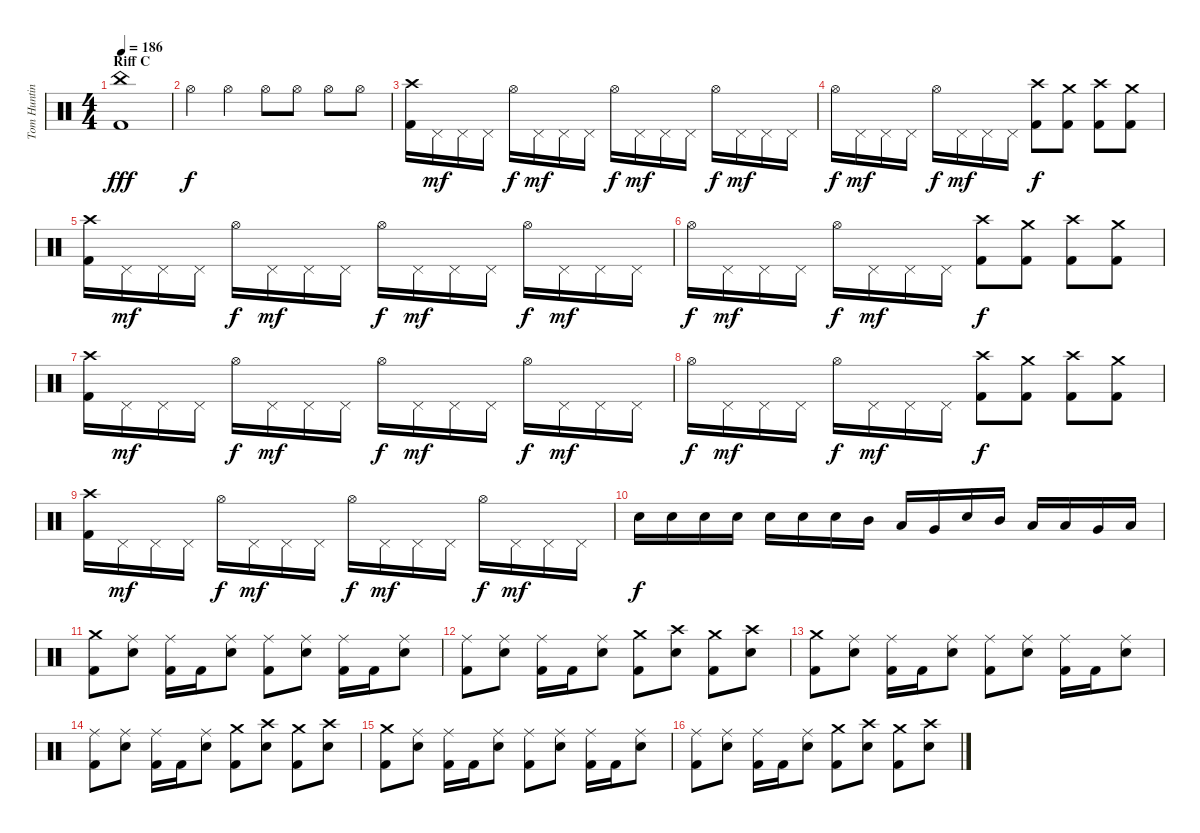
\track ("Tom Hunting" "Tom Huntin") {instrument percussion}
\staff {score}
\articulation defaults
\ts (4 4)
\section ("" "Riff C")
\tempo 186
\clef neutral
\ks c
("Kick (hit) 2" "China (hit)").1{dy fff} |
"Hi-Hat (open)".4{dy f} "Hi-Hat (open)".4 "Hi-Hat (open)".8 "Hi-Hat (open)".8 "Hi-Hat (open)".8 "Hi-Hat (open)".8 |
("Kick (hit) 2" "Crash high (hit)").16 "Pedal Hi-Hat (hit)".16{dy mf} "Pedal Hi-Hat (hit)".16 "Pedal Hi-Hat (hit)".16 "Hi-Hat (open)".16{dy f} "Pedal Hi-Hat (hit)".16{dy mf} "Pedal Hi-Hat (hit)".16 "Pedal Hi-Hat (hit)".16 "Hi-Hat (open)".16{dy f} "Pedal Hi-Hat (hit)".16{dy mf} "Pedal Hi-Hat (hit)".16 "Pedal Hi-Hat (hit)".16 "Hi-Hat (open)".16{dy f} "Pedal Hi-Hat (hit)".16{dy mf} "Pedal Hi-Hat (hit)".16 "Pedal Hi-Hat (hit)".16 |
"Hi-Hat (open)".16{dy f} "Pedal Hi-Hat (hit)".16{dy mf} "Pedal Hi-Hat (hit)".16 "Pedal Hi-Hat (hit)".16 "Hi-Hat (open)".16{dy f} "Pedal Hi-Hat (hit)".16{dy mf} "Pedal Hi-Hat (hit)".16 "Pedal Hi-Hat (hit)".16 ("Kick (hit) 2" "Crash high (hit)").8{dy f} ("Kick (hit) 2" "Crash medium (hit)").8 ("Kick (hit) 2" "Crash high (hit)").8 ("Kick (hit) 2" "Crash medium (hit)").8 |
("Kick (hit) 2" "Crash high (hit)").16 "Pedal Hi-Hat (hit)".16{dy mf} "Pedal Hi-Hat (hit)".16 "Pedal Hi-Hat (hit)".16 "Hi-Hat (open)".16{dy f} "Pedal Hi-Hat (hit)".16{dy mf} "Pedal Hi-Hat (hit)".16 "Pedal Hi-Hat (hit)".16 "Hi-Hat (open)".16{dy f} "Pedal Hi-Hat (hit)".16{dy mf} "Pedal Hi-Hat (hit)".16 "Pedal Hi-Hat (hit)".16 "Hi-Hat (open)".16{dy f} "Pedal Hi-Hat (hit)".16{dy mf} "Pedal Hi-Hat (hit)".16 "Pedal Hi-Hat (hit)".16 |
"Hi-Hat (open)".16{dy f} "Pedal Hi-Hat (hit)".16{dy mf} "Pedal Hi-Hat (hit)".16 "Pedal Hi-Hat (hit)".16 "Hi-Hat (open)".16{dy f} "Pedal Hi-Hat (hit)".16{dy mf} "Pedal Hi-Hat (hit)".16 "Pedal Hi-Hat (hit)".16 ("Kick (hit) 2" "Crash high (hit)").8{dy f} ("Kick (hit) 2" "Crash medium (hit)").8 ("Kick (hit) 2" "Crash high (hit)").8 ("Kick (hit) 2" "Crash medium (hit)").8 |
("Kick (hit) 2" "Crash high (hit)").16 "Pedal Hi-Hat (hit)".16{dy mf} "Pedal Hi-Hat (hit)".16 "Pedal Hi-Hat (hit)".16 "Hi-Hat (open)".16{dy f} "Pedal Hi-Hat (hit)".16{dy mf} "Pedal Hi-Hat (hit)".16 "Pedal Hi-Hat (hit)".16 "Hi-Hat (open)".16{dy f} "Pedal Hi-Hat (hit)".16{dy mf} "Pedal Hi-Hat (hit)".16 "Pedal Hi-Hat (hit)".16 "Hi-Hat (open)".16{dy f} "Pedal Hi-Hat (hit)".16{dy mf} "Pedal Hi-Hat (hit)".16 "Pedal Hi-Hat (hit)".16 |
"Hi-Hat (open)".16{dy f} "Pedal Hi-Hat (hit)".16{dy mf} "Pedal Hi-Hat (hit)".16 "Pedal Hi-Hat (hit)".16 "Hi-Hat (open)".16{dy f} "Pedal Hi-Hat (hit)".16{dy mf} "Pedal Hi-Hat (hit)".16 "Pedal Hi-Hat (hit)".16 ("Kick (hit) 2" "Crash high (hit)").8{dy f} ("Kick (hit) 2" "Crash medium (hit)").8 ("Kick (hit) 2" "Crash high (hit)").8 ("Kick (hit) 2" "Crash medium (hit)").8 |
("Kick (hit) 2" "Crash high (hit)").16 "Pedal Hi-Hat (hit)".16{dy mf} "Pedal Hi-Hat (hit)".16 "Pedal Hi-Hat (hit)".16 "Hi-Hat (open)".16{dy f} "Pedal Hi-Hat (hit)".16{dy mf} "Pedal Hi-Hat (hit)".16 "Pedal Hi-Hat (hit)".16 "Hi-Hat (open)".16{dy f} "Pedal Hi-Hat (hit)".16{dy mf} "Pedal Hi-Hat (hit)".16 "Pedal Hi-Hat (hit)".16 "Hi-Hat (open)".16{dy f} "Pedal Hi-Hat (hit)".16{dy mf} "Pedal Hi-Hat (hit)".16 "Pedal Hi-Hat (hit)".16 |
"Snare (hit) 2".16{dy f} "Snare (hit) 2".16 "Snare (hit) 2".16 "Snare (hit) 2".16 "Snare (hit) 2".16 "Snare (hit) 2".16 "Snare (hit) 2".16 "Mid Tom (hit)".16 "Low Tom (hit)".16 "Very Low Tom (hit)".16 "Snare (hit) 2".16 "Mid Tom (hit)".16 "Low Tom (hit)".16 "Low Tom (hit)".16 "Very Low Tom (hit)".16 "Low Floor Tom (hit)".16 |
("Kick (hit) 2" "Crash medium (hit)").8 ("Ride (middle)" "Snare (hit) 2").8 ("Kick (hit) 2" "Ride (middle)").16 "Kick (hit) 2".16 ("Ride (middle)" "Snare (hit) 2").8 ("Kick (hit) 2" "Ride (middle)").8 ("Ride (middle)" "Snare (hit) 2").8 ("Kick (hit) 2" "Ride (middle)").16 "Kick (hit) 2".16 ("Ride (middle)" "Snare (hit) 2").8 |
("Kick (hit) 2" "Ride (middle)").8 ("Ride (middle)" "Snare (hit) 2").8 ("Kick (hit) 2" "Ride (middle)").16 "Kick (hit) 2".16 ("Ride (middle)" "Snare (hit) 2").8 ("Kick (hit) 2" "Crash medium (hit)").8 ("Crash high (hit)" "Snare (hit) 2").8 ("Kick (hit) 2" "Crash medium (hit)").8 ("Crash high (hit)" "Snare (hit) 2").8 |
("Kick (hit) 2" "Crash medium (hit)").8 ("Ride (middle)" "Snare (hit) 2").8 ("Kick (hit) 2" "Ride (middle)").16 "Kick (hit) 2".16 ("Ride (middle)" "Snare (hit) 2").8 ("Kick (hit) 2" "Ride (middle)").8 ("Ride (middle)" "Snare (hit) 2").8 ("Kick (hit) 2" "Ride (middle)").16 "Kick (hit) 2".16 ("Ride (middle)" "Snare (hit) 2").8 |
("Kick (hit) 2" "Ride (middle)").8 ("Ride (middle)" "Snare (hit) 2").8 ("Kick (hit) 2" "Ride (middle)").16 "Kick (hit) 2".16 ("Ride (middle)" "Snare (hit) 2").8 ("Kick (hit) 2" "Crash medium (hit)").8 ("Crash high (hit)" "Snare (hit) 2").8 ("Kick (hit) 2" "Crash medium (hit)").8 ("Crash high (hit)" "Snare (hit) 2").8 |
("Kick (hit) 2" "Crash medium (hit)").8 ("Ride (middle)" "Snare (hit) 2").8 ("Kick (hit) 2" "Ride (middle)").16 "Kick (hit) 2".16 ("Ride (middle)" "Snare (hit) 2").8 ("Kick (hit) 2" "Ride (middle)").8 ("Ride (middle)" "Snare (hit) 2").8 ("Kick (hit) 2" "Ride (middle)").16 "Kick (hit) 2".16 ("Ride (middle)" "Snare (hit) 2").8 |
("Kick (hit) 2" "Ride (middle)").8 ("Ride (middle)" "Snare (hit) 2").8 ("Kick (hit) 2" "Ride (middle)").16 "Kick (hit) 2".16 ("Ride (middle)" "Snare (hit) 2").8 ("Kick (hit) 2" "Crash medium (hit)").8 ("Crash high (hit)" "Snare (hit) 2").8 ("Kick (hit) 2" "Crash medium (hit)").8 ("Crash high (hit)" "Snare (hit) 2").8
